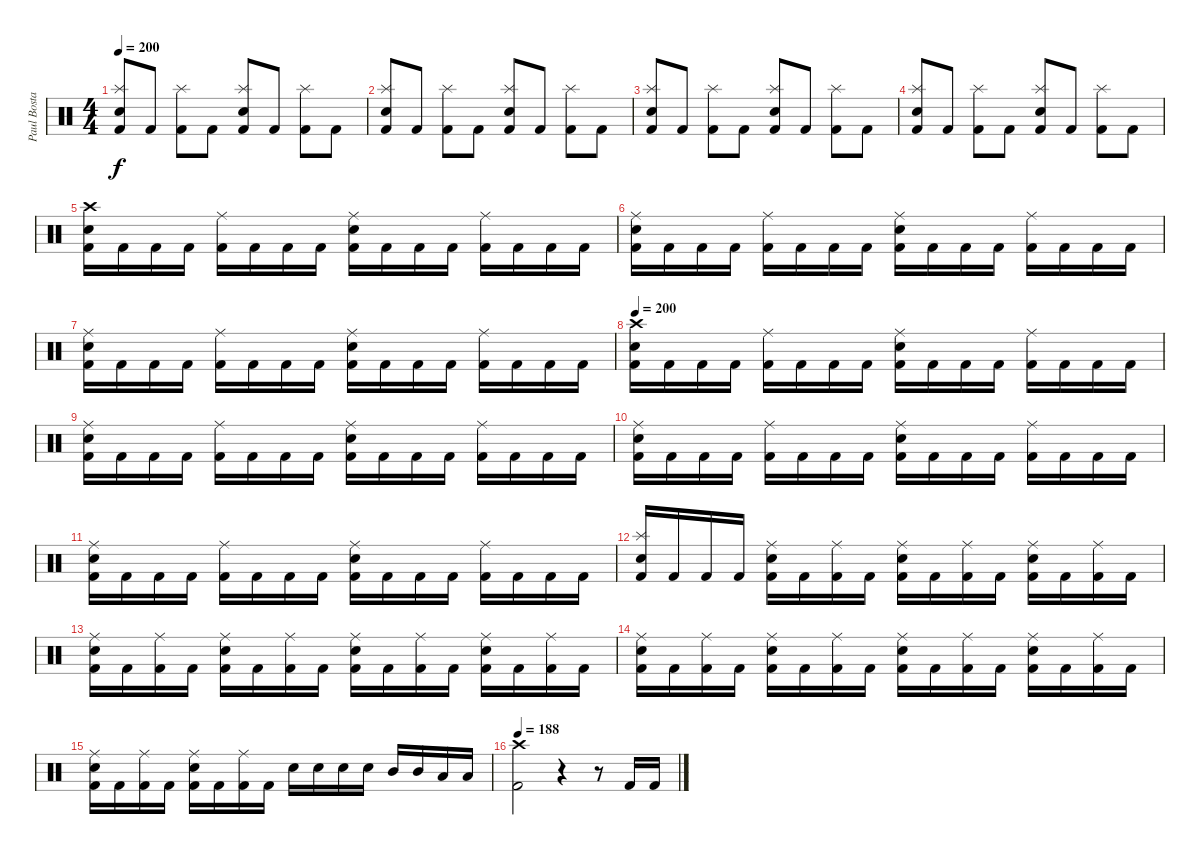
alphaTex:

\track ("Paul Bostaph" "Paul Bosta") {instrument percussion}
\staff {score}
\articulation defaults
\ts (4 4)
\tempo 200
\clef neutral
\ks c
("Electric Snare (hit)" "Splash (hit)" "Kick (hit) 2").8{dy f} "Kick (hit) 2".8 ("Splash (hit)" "Kick (hit) 2").8 "Kick (hit) 2".8 ("Electric Snare (hit)" "Splash (hit)" "Kick (hit) 2").8 "Kick (hit) 2".8 ("Splash (hit)" "Kick (hit) 2").8 "Kick (hit) 2".8 |
("Electric Snare (hit)" "Splash (hit)" "Kick (hit) 2").8 "Kick (hit) 2".8 ("Splash (hit)" "Kick (hit) 2").8 "Kick (hit) 2".8 ("Electric Snare (hit)" "Splash (hit)" "Kick (hit) 2").8 "Kick (hit) 2".8 ("Splash (hit)" "Kick (hit) 2").8 "Kick (hit) 2".8 |
("Electric Snare (hit)" "Splash (hit)" "Kick (hit) 2").8 "Kick (hit) 2".8 ("Splash (hit)" "Kick (hit) 2").8 "Kick (hit) 2".8 ("Electric Snare (hit)" "Splash (hit)" "Kick (hit) 2").8 "Kick (hit) 2".8 ("Splash (hit)" "Kick (hit) 2").8 "Kick (hit) 2".8 |
("Electric Snare (hit)" "Splash (hit)" "Kick (hit) 2").8 "Kick (hit) 2".8 ("Splash (hit)" "Kick (hit) 2").8 "Kick (hit) 2".8 ("Electric Snare (hit)" "Splash (hit)" "Kick (hit) 2").8 "Kick (hit) 2".8 ("Splash (hit)" "Kick (hit) 2").8 "Kick (hit) 2".8 |
("Electric Snare (hit)" "Kick (hit) 2" "Crash high (hit)").16 "Kick (hit) 2".16 "Kick (hit) 2".16 "Kick (hit) 2".16 ("Kick (hit) 2" "Ride (middle)").16 "Kick (hit) 2".16 "Kick (hit) 2".16 "Kick (hit) 2".16 ("Electric Snare (hit)" "Kick (hit) 2" "Ride (middle)").16 "Kick (hit) 2".16 "Kick (hit) 2".16 "Kick (hit) 2".16 ("Kick (hit) 2" "Ride (middle)").16 "Kick (hit) 2".16 "Kick (hit) 2".16 "Kick (hit) 2".16 |
("Electric Snare (hit)" "Kick (hit) 2" "Ride (middle)").16 "Kick (hit) 2".16 "Kick (hit) 2".16 "Kick (hit) 2".16 ("Kick (hit) 2" "Ride (middle)").16 "Kick (hit) 2".16 "Kick (hit) 2".16 "Kick (hit) 2".16 ("Electric Snare (hit)" "Kick (hit) 2" "Ride (middle)").16 "Kick (hit) 2".16 "Kick (hit) 2".16 "Kick (hit) 2".16 ("Kick (hit) 2" "Ride (middle)").16 "Kick (hit) 2".16 "Kick (hit) 2".16 "Kick (hit) 2".16 |
("Electric Snare (hit)" "Kick (hit) 2" "Ride (middle)").16 "Kick (hit) 2".16 "Kick (hit) 2".16 "Kick (hit) 2".16 ("Kick (hit) 2" "Ride (middle)").16 "Kick (hit) 2".16 "Kick (hit) 2".16 "Kick (hit) 2".16 ("Electric Snare (hit)" "Kick (hit) 2" "Ride (middle)").16 "Kick (hit) 2".16 "Kick (hit) 2".16 "Kick (hit) 2".16 ("Kick (hit) 2" "Ride (middle)").16 "Kick (hit) 2".16 "Kick (hit) 2".16 "Kick (hit) 2".16 |
\tempo 200
("Electric Snare (hit)" "Kick (hit) 2" "Crash high (hit)").16 "Kick (hit) 2".16 "Kick (hit) 2".16 "Kick (hit) 2".16 ("Kick (hit) 2" "Ride (middle)").16 "Kick (hit) 2".16 "Kick (hit) 2".16 "Kick (hit) 2".16 ("Electric Snare (hit)" "Kick (hit) 2" "Ride (middle)").16 "Kick (hit) 2".16 "Kick (hit) 2".16 "Kick (hit) 2".16 ("Kick (hit) 2" "Ride (middle)").16 "Kick (hit) 2".16 "Kick (hit) 2".16 "Kick (hit) 2".16 |
("Electric Snare (hit)" "Kick (hit) 2" "Ride (middle)").16 "Kick (hit) 2".16 "Kick (hit) 2".16 "Kick (hit) 2".16 ("Kick (hit) 2" "Ride (middle)").16 "Kick (hit) 2".16 "Kick (hit) 2".16 "Kick (hit) 2".16 ("Electric Snare (hit)" "Kick (hit) 2" "Ride (middle)").16 "Kick (hit) 2".16 "Kick (hit) 2".16 "Kick (hit) 2".16 ("Kick (hit) 2" "Ride (middle)").16 "Kick (hit) 2".16 "Kick (hit) 2".16 "Kick (hit) 2".16 |
("Electric Snare (hit)" "Kick (hit) 2" "Ride (middle)").16 "Kick (hit) 2".16 "Kick (hit) 2".16 "Kick (hit) 2".16 ("Kick (hit) 2" "Ride (middle)").16 "Kick (hit) 2".16 "Kick (hit) 2".16 "Kick (hit) 2".16 ("Electric Snare (hit)" "Kick (hit) 2" "Ride (middle)").16 "Kick (hit) 2".16 "Kick (hit) 2".16 "Kick (hit) 2".16 ("Kick (hit) 2" "Ride (middle)").16 "Kick (hit) 2".16 "Kick (hit) 2".16 "Kick (hit) 2".16 |
("Electric Snare (hit)" "Kick (hit) 2" "Ride (middle)").16 "Kick (hit) 2".16 "Kick (hit) 2".16 "Kick (hit) 2".16 ("Kick (hit) 2" "Ride (middle)").16 "Kick (hit) 2".16 "Kick (hit) 2".16 "Kick (hit) 2".16 ("Electric Snare (hit)" "Kick (hit) 2" "Ride (middle)").16 "Kick (hit) 2".16 "Kick (hit) 2".16 "Kick (hit) 2".16 ("Kick (hit) 2" "Ride (middle)").16 "Kick (hit) 2".16 "Kick (hit) 2".16 "Kick (hit) 2".16 |
("Electric Snare (hit)" "Kick (hit) 2" "Splash (hit)").16 "Kick (hit) 2".16 "Kick (hit) 2".16 "Kick (hit) 2".16 ("Kick (hit) 2" "Electric Snare (hit)" "Ride (middle)").16 "Kick (hit) 2".16 ("Kick (hit) 2" "Ride (middle)").16 "Kick (hit) 2".16 ("Electric Snare (hit)" "Kick (hit) 2" "Ride (middle)").16 "Kick (hit) 2".16 ("Kick (hit) 2" "Ride (middle)").16 "Kick (hit) 2".16 ("Kick (hit) 2" "Electric Snare (hit)" "Ride (middle)").16 "Kick (hit) 2".16 ("Kick (hit) 2" "Ride (middle)").16 "Kick (hit) 2".16 |
("Electric Snare (hit)" "Kick (hit) 2" "Ride (middle)").16 "Kick (hit) 2".16 ("Kick (hit) 2" "Ride (middle)").16 "Kick (hit) 2".16 ("Kick (hit) 2" "Electric Snare (hit)" "Ride (middle)").16 "Kick (hit) 2".16 ("Kick (hit) 2" "Ride (middle)").16 "Kick (hit) 2".16 ("Electric Snare (hit)" "Kick (hit) 2" "Ride (middle)").16 "Kick (hit) 2".16 ("Kick (hit) 2" "Ride (middle)").16 "Kick (hit) 2".16 ("Kick (hit) 2" "Electric Snare (hit)" "Ride (middle)").16 "Kick (hit) 2".16 ("Kick (hit) 2" "Ride (middle)").16 "Kick (hit) 2".16 |
("Electric Snare (hit)" "Kick (hit) 2" "Ride (middle)").16 "Kick (hit) 2".16 ("Kick (hit) 2" "Ride (middle)").16 "Kick (hit) 2".16 ("Kick (hit) 2" "Electric Snare (hit)" "Ride (middle)").16 "Kick (hit) 2".16 ("Kick (hit) 2" "Ride (middle)").16 "Kick (hit) 2".16 ("Electric Snare (hit)" "Kick (hit) 2" "Ride (middle)").16 "Kick (hit) 2".16 ("Kick (hit) 2" "Ride (middle)").16 "Kick (hit) 2".16 ("Kick (hit) 2" "Electric Snare (hit)" "Ride (middle)").16 "Kick (hit) 2".16 ("Kick (hit) 2" "Ride (middle)").16 "Kick (hit) 2".16 |
("Electric Snare (hit)" "Kick (hit) 2" "Ride (middle)").16 "Kick (hit) 2".16 ("Kick (hit) 2" "Ride (middle)").16 "Kick (hit) 2".16 ("Kick (hit) 2" "Electric Snare (hit)" "Ride (middle)").16 "Kick (hit) 2".16 ("Kick (hit) 2" "Ride (middle)").16 "Kick (hit) 2".16 "Electric Snare (hit)".16 "Electric Snare (hit)".16 "Electric Snare (hit)".16 "Electric Snare (hit)".16 "Mid Tom (hit)".16 "Mid Tom (hit)".16 "Low Tom (hit)".16 "Low Tom (hit)".16 |
\tempo 188
("Crash high (hit)" "Kick (hit) 2").2 r.4 r.8 "Kick (hit) 2".16 "Kick (hit) 2".16
